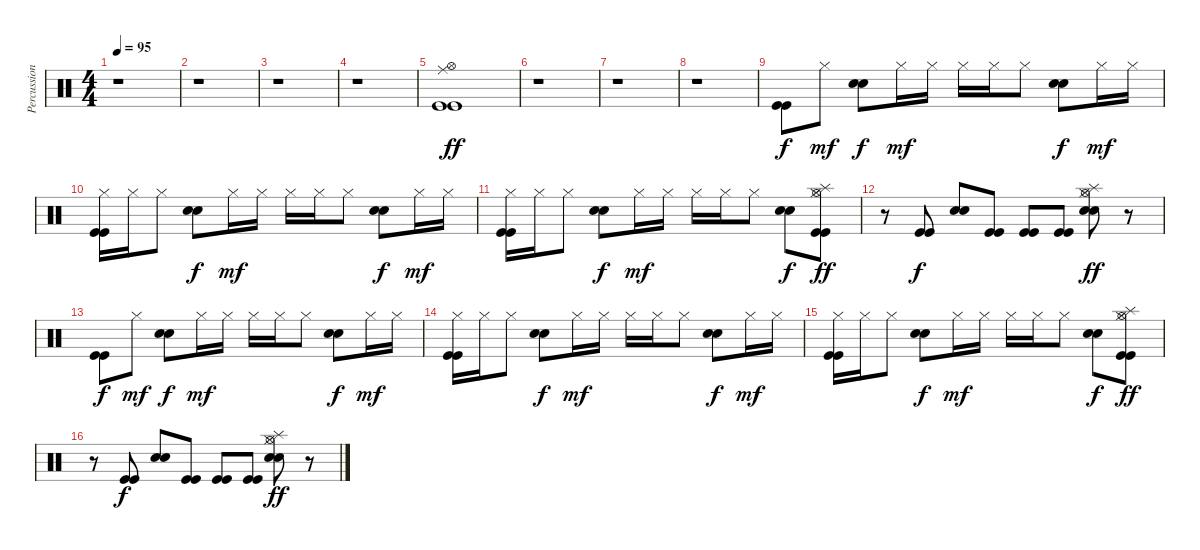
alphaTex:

\track ("Percussions" "Percussion") {instrument percussion}
\staff {score}
\articulation defaults
\ts (4 4)
\tempo 95
\clef neutral
\ks c
r.1{dy ff} |
r.1 |
r.1 |
r.1 |
("Ride (middle)" "Hi-Hat (open)" "Kick (hit)" "Kick (hit)").1 |
r.1 |
r.1 |
r.1 |
("Kick (hit)" "Kick (hit)").8{dy f} "Hi-Hat (closed)".8{dy mf} ("Electric Snare (hit)" "Electric Snare (hit)").8{dy f} "Hi-Hat (closed)".16{dy mf} "Hi-Hat (closed)".16 "Hi-Hat (closed)".16 "Hi-Hat (closed)".16 "Hi-Hat (closed)".8 ("Electric Snare (hit)" "Electric Snare (hit)").8{dy f} "Hi-Hat (closed)".16{dy mf} "Hi-Hat (closed)".16 |
("Hi-Hat (closed)" "Kick (hit)" "Kick (hit)").16 "Hi-Hat (closed)".16 "Hi-Hat (closed)".8 ("Electric Snare (hit)" "Electric Snare (hit)").8{dy f} "Hi-Hat (closed)".16{dy mf} "Hi-Hat (closed)".16 "Hi-Hat (closed)".16 "Hi-Hat (closed)".16 "Hi-Hat (closed)".8 ("Electric Snare (hit)" "Electric Snare (hit)").8{dy f} "Hi-Hat (closed)".16{dy mf} "Hi-Hat (closed)".16 |
("Hi-Hat (closed)" "Kick (hit)" "Kick (hit)").16 "Hi-Hat (closed)".16 "Hi-Hat (closed)".8 ("Electric Snare (hit)" "Electric Snare (hit)").8{dy f} "Hi-Hat (closed)".16{dy mf} "Hi-Hat (closed)".16 "Hi-Hat (closed)".16 "Hi-Hat (closed)".16 "Hi-Hat (closed)".8 ("Electric Snare (hit)" "Electric Snare (hit)").8{dy f} ("Hi-Hat (closed)" "Splash (hit)" "Hi-Hat (open)" "Kick (hit)" "Kick (hit)").8{dy ff} |
r.8 ("Kick (hit)" "Kick (hit)").8{dy f} ("Electric Snare (hit)" "Electric Snare (hit)").8 ("Kick (hit)" "Kick (hit)").8 ("Kick (hit)" "Kick (hit)").8 ("Kick (hit)" "Kick (hit)").8 ("Hi-Hat (closed)" "Splash (hit)" "Electric Snare (hit)" "Electric Snare (hit)" "Hi-Hat (open)").8{dy ff} r.8 |
("Kick (hit)" "Kick (hit)").8{dy f} "Hi-Hat (closed)".8{dy mf} ("Electric Snare (hit)" "Electric Snare (hit)").8{dy f} "Hi-Hat (closed)".16{dy mf} "Hi-Hat (closed)".16 "Hi-Hat (closed)".16 "Hi-Hat (closed)".16 "Hi-Hat (closed)".8 ("Electric Snare (hit)" "Electric Snare (hit)").8{dy f} "Hi-Hat (closed)".16{dy mf} "Hi-Hat (closed)".16 |
("Hi-Hat (closed)" "Kick (hit)" "Kick (hit)").16 "Hi-Hat (closed)".16 "Hi-Hat (closed)".8 ("Electric Snare (hit)" "Electric Snare (hit)").8{dy f} "Hi-Hat (closed)".16{dy mf} "Hi-Hat (closed)".16 "Hi-Hat (closed)".16 "Hi-Hat (closed)".16 "Hi-Hat (closed)".8 ("Electric Snare (hit)" "Electric Snare (hit)").8{dy f} "Hi-Hat (closed)".16{dy mf} "Hi-Hat (closed)".16 |
("Hi-Hat (closed)" "Kick (hit)" "Kick (hit)").16 "Hi-Hat (closed)".16 "Hi-Hat (closed)".8 ("Electric Snare (hit)" "Electric Snare (hit)").8{dy f} "Hi-Hat (closed)".16{dy mf} "Hi-Hat (closed)".16 "Hi-Hat (closed)".16 "Hi-Hat (closed)".16 "Hi-Hat (closed)".8 ("Electric Snare (hit)" "Electric Snare (hit)").8{dy f} ("Hi-Hat (closed)" "Splash (hit)" "Hi-Hat (open)" "Kick (hit)" "Kick (hit)").8{dy ff} |
r.8 ("Kick (hit)" "Kick (hit)").8{dy f} ("Electric Snare (hit)" "Electric Snare (hit)").8 ("Kick (hit)" "Kick (hit)").8 ("Kick (hit)" "Kick (hit)").8 ("Kick (hit)" "Kick (hit)").8 ("Hi-Hat (closed)" "Splash (hit)" "Electric Snare (hit)" "Electric Snare (hit)" "Hi-Hat (open)").8{dy ff} r.8
